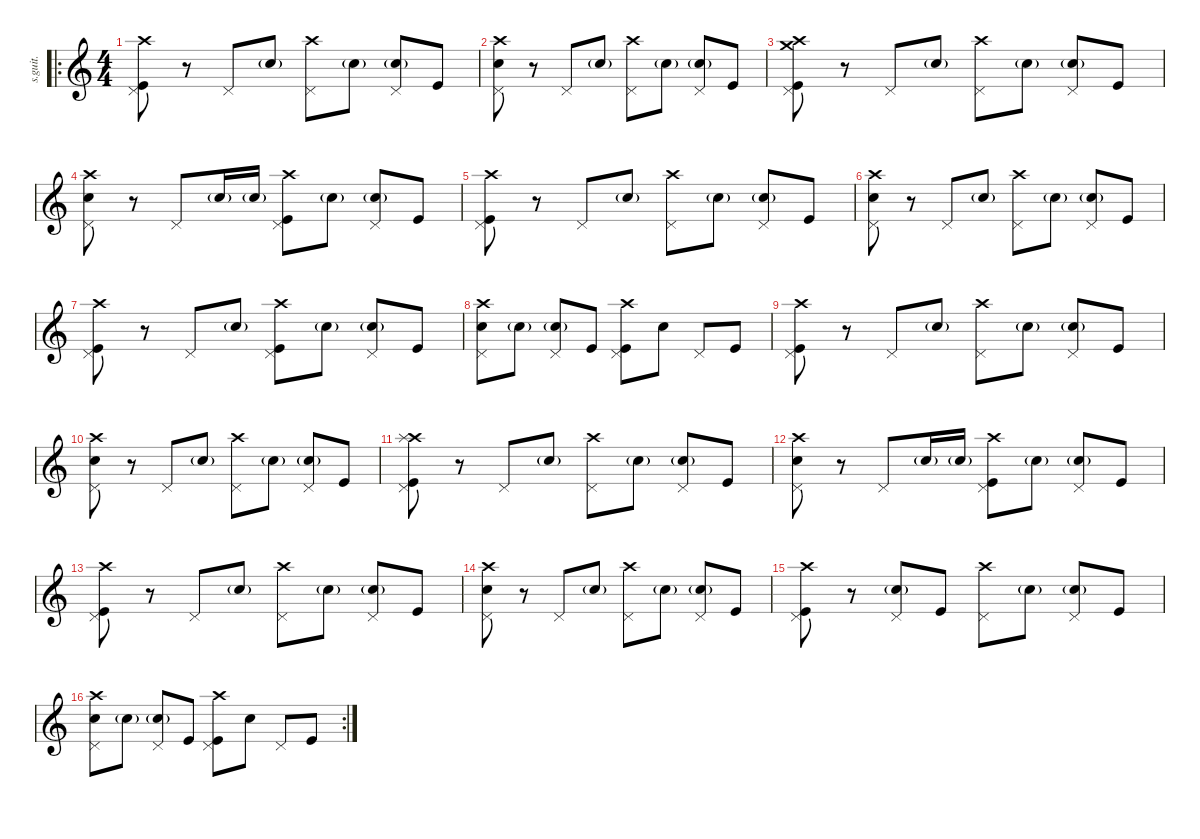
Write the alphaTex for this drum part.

\defaultSystemsLayout 4
\hideDynamics
\bracketExtendMode nobrackets
\track ("Matt Halpern" "s.guit.") {instrument percussion}
\staff {score}
\articulation defaults
\ro
\ts (4 4)
\tempo (213 hide)
\clef g2
\ks c
("Crash high (hit)" "Pedal Hi-Hat (hit)" "Kick (hit)").8{lyrics (0 "") lyrics (1 "") lyrics (2 "") lyrics (3 "") lyrics (4 "") dy mf} r.8 "Pedal Hi-Hat (hit)".8{lyrics (0 "") lyrics (1 "") lyrics (2 "") lyrics (3 "") lyrics (4 "")} "Snare (hit) 2"{g}.8{lyrics (0 "") lyrics (1 "") lyrics (2 "") lyrics (3 "") lyrics (4 "")} ("Crash high (hit)" "Pedal Hi-Hat (hit)").8{lyrics (0 "") lyrics (1 "") lyrics (2 "") lyrics (3 "") lyrics (4 "")} "Snare (hit) 2"{g}.8{lyrics (0 "") lyrics (1 "") lyrics (2 "") lyrics (3 "") lyrics (4 "")} ("Pedal Hi-Hat (hit)" "Snare (hit) 2"{g}).8{lyrics (0 "") lyrics (1 "") lyrics (2 "") lyrics (3 "") lyrics (4 "")} "Kick (hit)".8{lyrics (0 "") lyrics (1 "") lyrics (2 "") lyrics (3 "") lyrics (4 "")} |
("Crash high (hit)" "Pedal Hi-Hat (hit)" "Snare (hit) 2").8{lyrics (0 "") lyrics (1 "") lyrics (2 "") lyrics (3 "") lyrics (4 "")} r.8 "Pedal Hi-Hat (hit)".8{lyrics (0 "") lyrics (1 "") lyrics (2 "") lyrics (3 "") lyrics (4 "")} "Snare (hit) 2"{g}.8{lyrics (0 "") lyrics (1 "") lyrics (2 "") lyrics (3 "") lyrics (4 "")} ("Crash high (hit)" "Pedal Hi-Hat (hit)").8{lyrics (0 "") lyrics (1 "") lyrics (2 "") lyrics (3 "") lyrics (4 "")} "Snare (hit) 2"{g}.8{lyrics (0 "") lyrics (1 "") lyrics (2 "") lyrics (3 "") lyrics (4 "")} ("Pedal Hi-Hat (hit)" "Snare (hit) 2"{g}).8{lyrics (0 "") lyrics (1 "") lyrics (2 "") lyrics (3 "") lyrics (4 "")} "Kick (hit)".8{lyrics (0 "") lyrics (1 "") lyrics (2 "") lyrics (3 "") lyrics (4 "")} |
("Crash high (hit)" "Crash medium (hit)" "Pedal Hi-Hat (hit)" "Kick (hit)").8{lyrics (0 "") lyrics (1 "") lyrics (2 "") lyrics (3 "") lyrics (4 "")} r.8 "Pedal Hi-Hat (hit)".8{lyrics (0 "") lyrics (1 "") lyrics (2 "") lyrics (3 "") lyrics (4 "")} "Snare (hit) 2"{g}.8{lyrics (0 "") lyrics (1 "") lyrics (2 "") lyrics (3 "") lyrics (4 "")} ("Crash high (hit)" "Pedal Hi-Hat (hit)").8{lyrics (0 "") lyrics (1 "") lyrics (2 "") lyrics (3 "") lyrics (4 "")} "Snare (hit) 2"{g}.8{lyrics (0 "") lyrics (1 "") lyrics (2 "") lyrics (3 "") lyrics (4 "")} ("Pedal Hi-Hat (hit)" "Snare (hit) 2"{g}).8{lyrics (0 "") lyrics (1 "") lyrics (2 "") lyrics (3 "") lyrics (4 "")} "Kick (hit)".8{lyrics (0 "") lyrics (1 "") lyrics (2 "") lyrics (3 "") lyrics (4 "")} |
("Crash high (hit)" "Pedal Hi-Hat (hit)" "Snare (hit) 2").8{lyrics (0 "") lyrics (1 "") lyrics (2 "") lyrics (3 "") lyrics (4 "")} r.8 "Pedal Hi-Hat (hit)".8{lyrics (0 "") lyrics (1 "") lyrics (2 "") lyrics (3 "") lyrics (4 "")} "Snare (hit) 2"{g}.16{lyrics (0 "") lyrics (1 "") lyrics (2 "") lyrics (3 "") lyrics (4 "")} "Snare (hit) 2"{g}.16{lyrics (0 "") lyrics (1 "") lyrics (2 "") lyrics (3 "") lyrics (4 "")} ("Crash high (hit)" "Pedal Hi-Hat (hit)" "Kick (hit)").8{lyrics (0 "") lyrics (1 "") lyrics (2 "") lyrics (3 "") lyrics (4 "")} "Snare (hit) 2"{g}.8{lyrics (0 "") lyrics (1 "") lyrics (2 "") lyrics (3 "") lyrics (4 "")} ("Pedal Hi-Hat (hit)" "Snare (hit) 2"{g}).8{lyrics (0 "") lyrics (1 "") lyrics (2 "") lyrics (3 "") lyrics (4 "")} "Kick (hit)".8{lyrics (0 "") lyrics (1 "") lyrics (2 "") lyrics (3 "") lyrics (4 "")} |
("Crash high (hit)" "Pedal Hi-Hat (hit)" "Kick (hit)").8{lyrics (0 "") lyrics (1 "") lyrics (2 "") lyrics (3 "") lyrics (4 "")} r.8 "Pedal Hi-Hat (hit)".8{lyrics (0 "") lyrics (1 "") lyrics (2 "") lyrics (3 "") lyrics (4 "")} "Snare (hit) 2"{g}.8{lyrics (0 "") lyrics (1 "") lyrics (2 "") lyrics (3 "") lyrics (4 "")} ("Crash high (hit)" "Pedal Hi-Hat (hit)").8{lyrics (0 "") lyrics (1 "") lyrics (2 "") lyrics (3 "") lyrics (4 "")} "Snare (hit) 2"{g}.8{lyrics (0 "") lyrics (1 "") lyrics (2 "") lyrics (3 "") lyrics (4 "")} ("Pedal Hi-Hat (hit)" "Snare (hit) 2"{g}).8{lyrics (0 "") lyrics (1 "") lyrics (2 "") lyrics (3 "") lyrics (4 "")} "Kick (hit)".8{lyrics (0 "") lyrics (1 "") lyrics (2 "") lyrics (3 "") lyrics (4 "")} |
("Crash high (hit)" "Pedal Hi-Hat (hit)" "Snare (hit) 2").8{lyrics (0 "") lyrics (1 "") lyrics (2 "") lyrics (3 "") lyrics (4 "")} r.8 "Pedal Hi-Hat (hit)".8{lyrics (0 "") lyrics (1 "") lyrics (2 "") lyrics (3 "") lyrics (4 "")} "Snare (hit) 2"{g}.8{lyrics (0 "") lyrics (1 "") lyrics (2 "") lyrics (3 "") lyrics (4 "")} ("Crash high (hit)" "Pedal Hi-Hat (hit)").8{lyrics (0 "") lyrics (1 "") lyrics (2 "") lyrics (3 "") lyrics (4 "")} "Snare (hit) 2"{g}.8{lyrics (0 "") lyrics (1 "") lyrics (2 "") lyrics (3 "") lyrics (4 "")} ("Pedal Hi-Hat (hit)" "Snare (hit) 2"{g}).8{lyrics (0 "") lyrics (1 "") lyrics (2 "") lyrics (3 "") lyrics (4 "")} "Kick (hit)".8{lyrics (0 "") lyrics (1 "") lyrics (2 "") lyrics (3 "") lyrics (4 "")} |
("Crash high (hit)" "Pedal Hi-Hat (hit)" "Kick (hit)").8{lyrics (0 "") lyrics (1 "") lyrics (2 "") lyrics (3 "") lyrics (4 "")} r.8 "Pedal Hi-Hat (hit)".8{lyrics (0 "") lyrics (1 "") lyrics (2 "") lyrics (3 "") lyrics (4 "")} "Snare (hit) 2"{g}.8{lyrics (0 "") lyrics (1 "") lyrics (2 "") lyrics (3 "") lyrics (4 "")} ("Crash high (hit)" "Pedal Hi-Hat (hit)" "Kick (hit)").8{lyrics (0 "") lyrics (1 "") lyrics (2 "") lyrics (3 "") lyrics (4 "")} "Snare (hit) 2"{g}.8{lyrics (0 "") lyrics (1 "") lyrics (2 "") lyrics (3 "") lyrics (4 "")} ("Pedal Hi-Hat (hit)" "Snare (hit) 2"{g}).8{lyrics (0 "") lyrics (1 "") lyrics (2 "") lyrics (3 "") lyrics (4 "")} "Kick (hit)".8{lyrics (0 "") lyrics (1 "") lyrics (2 "") lyrics (3 "") lyrics (4 "")} |
("Crash high (hit)" "Pedal Hi-Hat (hit)" "Snare (hit) 2").8{lyrics (0 "") lyrics (1 "") lyrics (2 "") lyrics (3 "") lyrics (4 "")} "Snare (hit) 2"{g}.8{lyrics (0 "") lyrics (1 "") lyrics (2 "") lyrics (3 "") lyrics (4 "")} ("Pedal Hi-Hat (hit)" "Snare (hit) 2"{g}).8{lyrics (0 "") lyrics (1 "") lyrics (2 "") lyrics (3 "") lyrics (4 "")} "Kick (hit)".8{lyrics (0 "") lyrics (1 "") lyrics (2 "") lyrics (3 "") lyrics (4 "")} ("Crash high (hit)" "Pedal Hi-Hat (hit)" "Kick (hit)").8{lyrics (0 "") lyrics (1 "") lyrics (2 "") lyrics (3 "") lyrics (4 "")} "Snare (hit) 2".8{lyrics (0 "") lyrics (1 "") lyrics (2 "") lyrics (3 "") lyrics (4 "")} "Pedal Hi-Hat (hit)".8{lyrics (0 "") lyrics (1 "") lyrics (2 "") lyrics (3 "") lyrics (4 "")} "Kick (hit)".8{lyrics (0 "") lyrics (1 "") lyrics (2 "") lyrics (3 "") lyrics (4 "")} |
("Crash high (hit)" "Pedal Hi-Hat (hit)" "Kick (hit)").8{lyrics (0 "") lyrics (1 "") lyrics (2 "") lyrics (3 "") lyrics (4 "")} r.8 "Pedal Hi-Hat (hit)".8{lyrics (0 "") lyrics (1 "") lyrics (2 "") lyrics (3 "") lyrics (4 "")} "Snare (hit) 2"{g}.8{lyrics (0 "") lyrics (1 "") lyrics (2 "") lyrics (3 "") lyrics (4 "")} ("Crash high (hit)" "Pedal Hi-Hat (hit)").8{lyrics (0 "") lyrics (1 "") lyrics (2 "") lyrics (3 "") lyrics (4 "")} "Snare (hit) 2"{g}.8{lyrics (0 "") lyrics (1 "") lyrics (2 "") lyrics (3 "") lyrics (4 "")} ("Pedal Hi-Hat (hit)" "Snare (hit) 2"{g}).8{lyrics (0 "") lyrics (1 "") lyrics (2 "") lyrics (3 "") lyrics (4 "")} "Kick (hit)".8{lyrics (0 "") lyrics (1 "") lyrics (2 "") lyrics (3 "") lyrics (4 "")} |
("Crash high (hit)" "Pedal Hi-Hat (hit)" "Snare (hit) 2").8{lyrics (0 "") lyrics (1 "") lyrics (2 "") lyrics (3 "") lyrics (4 "")} r.8 "Pedal Hi-Hat (hit)".8{lyrics (0 "") lyrics (1 "") lyrics (2 "") lyrics (3 "") lyrics (4 "")} "Snare (hit) 2"{g}.8{lyrics (0 "") lyrics (1 "") lyrics (2 "") lyrics (3 "") lyrics (4 "")} ("Crash high (hit)" "Pedal Hi-Hat (hit)").8{lyrics (0 "") lyrics (1 "") lyrics (2 "") lyrics (3 "") lyrics (4 "")} "Snare (hit) 2"{g}.8{lyrics (0 "") lyrics (1 "") lyrics (2 "") lyrics (3 "") lyrics (4 "")} ("Pedal Hi-Hat (hit)" "Snare (hit) 2"{g}).8{lyrics (0 "") lyrics (1 "") lyrics (2 "") lyrics (3 "") lyrics (4 "")} "Kick (hit)".8{lyrics (0 "") lyrics (1 "") lyrics (2 "") lyrics (3 "") lyrics (4 "")} |
("Crash high (hit)" "Splash (hit)" "Pedal Hi-Hat (hit)" "Kick (hit)").8{lyrics (0 "") lyrics (1 "") lyrics (2 "") lyrics (3 "") lyrics (4 "")} r.8 "Pedal Hi-Hat (hit)".8{lyrics (0 "") lyrics (1 "") lyrics (2 "") lyrics (3 "") lyrics (4 "")} "Snare (hit) 2"{g}.8{lyrics (0 "") lyrics (1 "") lyrics (2 "") lyrics (3 "") lyrics (4 "")} ("Crash high (hit)" "Pedal Hi-Hat (hit)").8{lyrics (0 "") lyrics (1 "") lyrics (2 "") lyrics (3 "") lyrics (4 "")} "Snare (hit) 2"{g}.8{lyrics (0 "") lyrics (1 "") lyrics (2 "") lyrics (3 "") lyrics (4 "")} ("Pedal Hi-Hat (hit)" "Snare (hit) 2"{g}).8{lyrics (0 "") lyrics (1 "") lyrics (2 "") lyrics (3 "") lyrics (4 "")} "Kick (hit)".8{lyrics (0 "") lyrics (1 "") lyrics (2 "") lyrics (3 "") lyrics (4 "")} |
("Crash high (hit)" "Pedal Hi-Hat (hit)" "Snare (hit) 2").8{lyrics (0 "") lyrics (1 "") lyrics (2 "") lyrics (3 "") lyrics (4 "")} r.8 "Pedal Hi-Hat (hit)".8{lyrics (0 "") lyrics (1 "") lyrics (2 "") lyrics (3 "") lyrics (4 "")} "Snare (hit) 2"{g}.16{lyrics (0 "") lyrics (1 "") lyrics (2 "") lyrics (3 "") lyrics (4 "")} "Snare (hit) 2"{g}.16{lyrics (0 "") lyrics (1 "") lyrics (2 "") lyrics (3 "") lyrics (4 "")} ("Crash high (hit)" "Pedal Hi-Hat (hit)" "Kick (hit)").8{lyrics (0 "") lyrics (1 "") lyrics (2 "") lyrics (3 "") lyrics (4 "")} "Snare (hit) 2"{g}.8{lyrics (0 "") lyrics (1 "") lyrics (2 "") lyrics (3 "") lyrics (4 "")} ("Pedal Hi-Hat (hit)" "Snare (hit) 2"{g}).8{lyrics (0 "") lyrics (1 "") lyrics (2 "") lyrics (3 "") lyrics (4 "")} "Kick (hit)".8{lyrics (0 "") lyrics (1 "") lyrics (2 "") lyrics (3 "") lyrics (4 "")} |
("Crash high (hit)" "Pedal Hi-Hat (hit)" "Kick (hit)").8{lyrics (0 "") lyrics (1 "") lyrics (2 "") lyrics (3 "") lyrics (4 "")} r.8 "Pedal Hi-Hat (hit)".8{lyrics (0 "") lyrics (1 "") lyrics (2 "") lyrics (3 "") lyrics (4 "")} "Snare (hit) 2"{g}.8{lyrics (0 "") lyrics (1 "") lyrics (2 "") lyrics (3 "") lyrics (4 "")} ("Crash high (hit)" "Pedal Hi-Hat (hit)").8{lyrics (0 "") lyrics (1 "") lyrics (2 "") lyrics (3 "") lyrics (4 "")} "Snare (hit) 2"{g}.8{lyrics (0 "") lyrics (1 "") lyrics (2 "") lyrics (3 "") lyrics (4 "")} ("Pedal Hi-Hat (hit)" "Snare (hit) 2"{g}).8{lyrics (0 "") lyrics (1 "") lyrics (2 "") lyrics (3 "") lyrics (4 "")} "Kick (hit)".8{lyrics (0 "") lyrics (1 "") lyrics (2 "") lyrics (3 "") lyrics (4 "")} |
("Crash high (hit)" "Pedal Hi-Hat (hit)" "Snare (hit) 2").8{lyrics (0 "") lyrics (1 "") lyrics (2 "") lyrics (3 "") lyrics (4 "")} r.8 "Pedal Hi-Hat (hit)".8{lyrics (0 "") lyrics (1 "") lyrics (2 "") lyrics (3 "") lyrics (4 "")} "Snare (hit) 2"{g}.8{lyrics (0 "") lyrics (1 "") lyrics (2 "") lyrics (3 "") lyrics (4 "")} ("Crash high (hit)" "Pedal Hi-Hat (hit)").8{lyrics (0 "") lyrics (1 "") lyrics (2 "") lyrics (3 "") lyrics (4 "")} "Snare (hit) 2"{g}.8{lyrics (0 "") lyrics (1 "") lyrics (2 "") lyrics (3 "") lyrics (4 "")} ("Pedal Hi-Hat (hit)" "Snare (hit) 2"{g}).8{lyrics (0 "") lyrics (1 "") lyrics (2 "") lyrics (3 "") lyrics (4 "")} "Kick (hit)".8{lyrics (0 "") lyrics (1 "") lyrics (2 "") lyrics (3 "") lyrics (4 "")} |
("Crash high (hit)" "Pedal Hi-Hat (hit)" "Kick (hit)").8{lyrics (0 "") lyrics (1 "") lyrics (2 "") lyrics (3 "") lyrics (4 "")} r.8 ("Pedal Hi-Hat (hit)" "Snare (hit) 2"{g}).8{lyrics (0 "") lyrics (1 "") lyrics (2 "") lyrics (3 "") lyrics (4 "")} "Kick (hit)".8{lyrics (0 "") lyrics (1 "") lyrics (2 "") lyrics (3 "") lyrics (4 "")} ("Crash high (hit)" "Pedal Hi-Hat (hit)").8{lyrics (0 "") lyrics (1 "") lyrics (2 "") lyrics (3 "") lyrics (4 "")} "Snare (hit) 2"{g}.8{lyrics (0 "") lyrics (1 "") lyrics (2 "") lyrics (3 "") lyrics (4 "")} ("Pedal Hi-Hat (hit)" "Snare (hit) 2"{g}).8{lyrics (0 "") lyrics (1 "") lyrics (2 "") lyrics (3 "") lyrics (4 "")} "Kick (hit)".8{lyrics (0 "") lyrics (1 "") lyrics (2 "") lyrics (3 "") lyrics (4 "")} |
\rc 2
("Crash high (hit)" "Pedal Hi-Hat (hit)" "Snare (hit) 2").8{lyrics (0 "") lyrics (1 "") lyrics (2 "") lyrics (3 "") lyrics (4 "")} "Snare (hit) 2"{g}.8{lyrics (0 "") lyrics (1 "") lyrics (2 "") lyrics (3 "") lyrics (4 "")} ("Pedal Hi-Hat (hit)" "Snare (hit) 2"{g}).8{lyrics (0 "") lyrics (1 "") lyrics (2 "") lyrics (3 "") lyrics (4 "")} "Kick (hit)".8{lyrics (0 "") lyrics (1 "") lyrics (2 "") lyrics (3 "") lyrics (4 "")} ("Crash high (hit)" "Pedal Hi-Hat (hit)" "Kick (hit)").8{lyrics (0 "") lyrics (1 "") lyrics (2 "") lyrics (3 "") lyrics (4 "")} "Snare (hit) 2".8{lyrics (0 "") lyrics (1 "") lyrics (2 "") lyrics (3 "") lyrics (4 "")} "Pedal Hi-Hat (hit)".8{lyrics (0 "") lyrics (1 "") lyrics (2 "") lyrics (3 "") lyrics (4 "")} "Kick (hit)".8{lyrics (0 "") lyrics (1 "") lyrics (2 "") lyrics (3 "") lyrics (4 "")}
